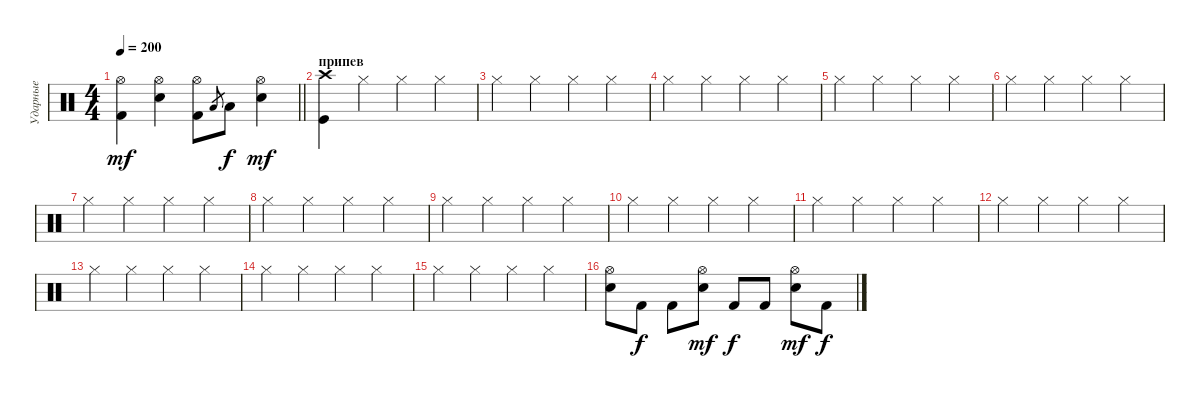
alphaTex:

\track ("Ударные" "Ударные") {instrument percussion}
\staff {score}
\articulation defaults
\ts (4 4)
\tempo 200
\clef neutral
\barLineRight lightlight
\ks c
("Kick (hit) 2" "Hi-Hat (open)").4{dy mf} ("Electric Snare (hit)" "Hi-Hat (open)").4 ("Kick (hit) 2" "Hi-Hat (open)").8 "Low Floor Tom (hit)".8{gr} "Low Floor Tom (hit)".8{dy f} ("Electric Snare (hit)" "Hi-Hat (open)").4{dy mf} |
\section ("" "припев")
("Kick (hit)" "Crash high (hit)").4 "Hi-Hat (closed)".4 "Hi-Hat (closed)".4 "Hi-Hat (closed)".4 |
"Hi-Hat (closed)".4 "Hi-Hat (closed)".4 "Hi-Hat (closed)".4 "Hi-Hat (closed)".4 |
"Hi-Hat (closed)".4 "Hi-Hat (closed)".4 "Hi-Hat (closed)".4 "Hi-Hat (closed)".4 |
"Hi-Hat (closed)".4 "Hi-Hat (closed)".4 "Hi-Hat (closed)".4 "Hi-Hat (closed)".4 |
"Hi-Hat (closed)".4 "Hi-Hat (closed)".4 "Hi-Hat (closed)".4 "Hi-Hat (closed)".4 |
"Hi-Hat (closed)".4 "Hi-Hat (closed)".4 "Hi-Hat (closed)".4 "Hi-Hat (closed)".4 |
"Hi-Hat (closed)".4 "Hi-Hat (closed)".4 "Hi-Hat (closed)".4 "Hi-Hat (closed)".4 |
"Hi-Hat (closed)".4 "Hi-Hat (closed)".4 "Hi-Hat (closed)".4 "Hi-Hat (closed)".4 |
"Hi-Hat (closed)".4 "Hi-Hat (closed)".4 "Hi-Hat (closed)".4 "Hi-Hat (closed)".4 |
"Hi-Hat (closed)".4 "Hi-Hat (closed)".4 "Hi-Hat (closed)".4 "Hi-Hat (closed)".4 |
"Hi-Hat (closed)".4 "Hi-Hat (closed)".4 "Hi-Hat (closed)".4 "Hi-Hat (closed)".4 |
"Hi-Hat (closed)".4 "Hi-Hat (closed)".4 "Hi-Hat (closed)".4 "Hi-Hat (closed)".4 |
"Hi-Hat (closed)".4 "Hi-Hat (closed)".4 "Hi-Hat (closed)".4 "Hi-Hat (closed)".4 |
"Hi-Hat (closed)".4 "Hi-Hat (closed)".4 "Hi-Hat (closed)".4 "Hi-Hat (closed)".4 |
("Electric Snare (hit)" "Hi-Hat (open)").8 "Kick (hit) 2".8{dy f} "Kick (hit) 2".8 ("Electric Snare (hit)" "Hi-Hat (open)").8{dy mf} "Kick (hit) 2".8{dy f} "Kick (hit) 2".8 ("Electric Snare (hit)" "Hi-Hat (open)").8{dy mf} "Kick (hit) 2".8{dy f}
